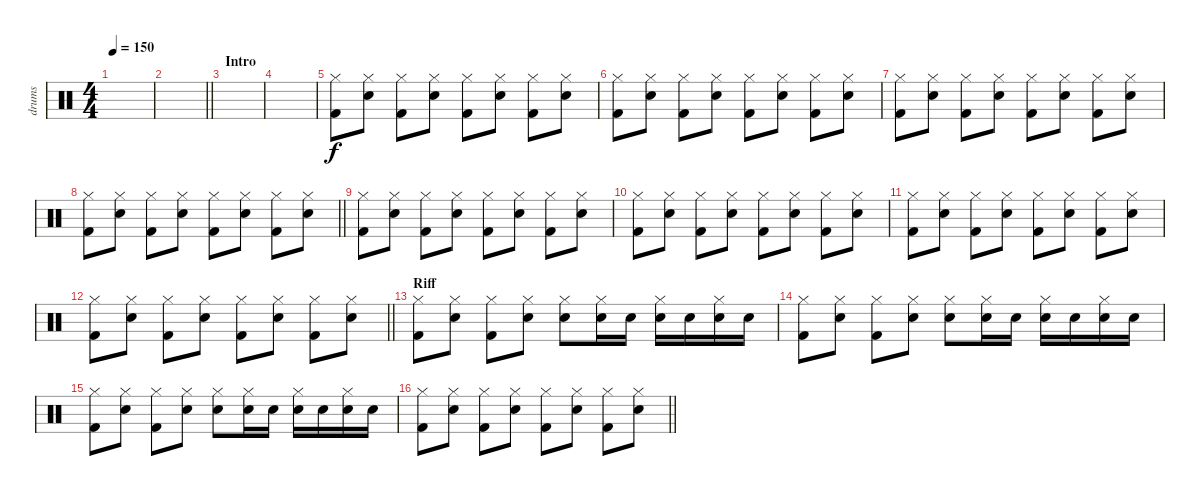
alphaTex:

\track ("drums" "drums") {instrument percussion}
\staff {score}
\articulation defaults
\ts (4 4)
\tempo 150
\clef neutral
\ks c
|
\barLineRight lightlight
|
\section ("" "Intro")
|
|
("Hi-Hat (closed)" "Kick (hit) 2").8 ("Hi-Hat (closed)" "Snare (hit) 2").8 ("Hi-Hat (closed)" "Kick (hit) 2").8 ("Hi-Hat (closed)" "Snare (hit) 2").8 ("Hi-Hat (closed)" "Kick (hit) 2").8 ("Hi-Hat (closed)" "Snare (hit) 2").8 ("Hi-Hat (closed)" "Kick (hit) 2").8 ("Hi-Hat (closed)" "Snare (hit) 2").8 |
("Hi-Hat (closed)" "Kick (hit) 2").8 ("Hi-Hat (closed)" "Snare (hit) 2").8 ("Hi-Hat (closed)" "Kick (hit) 2").8 ("Hi-Hat (closed)" "Snare (hit) 2").8 ("Hi-Hat (closed)" "Kick (hit) 2").8 ("Hi-Hat (closed)" "Snare (hit) 2").8 ("Hi-Hat (closed)" "Kick (hit) 2").8 ("Hi-Hat (closed)" "Snare (hit) 2").8 |
("Hi-Hat (closed)" "Kick (hit) 2").8 ("Hi-Hat (closed)" "Snare (hit) 2").8 ("Hi-Hat (closed)" "Kick (hit) 2").8 ("Hi-Hat (closed)" "Snare (hit) 2").8 ("Hi-Hat (closed)" "Kick (hit) 2").8 ("Hi-Hat (closed)" "Snare (hit) 2").8 ("Hi-Hat (closed)" "Kick (hit) 2").8 ("Hi-Hat (closed)" "Snare (hit) 2").8 |
\barLineRight lightlight
("Hi-Hat (closed)" "Kick (hit) 2").8 ("Hi-Hat (closed)" "Snare (hit) 2").8 ("Hi-Hat (closed)" "Kick (hit) 2").8 ("Hi-Hat (closed)" "Snare (hit) 2").8 ("Hi-Hat (closed)" "Kick (hit) 2").8 ("Hi-Hat (closed)" "Snare (hit) 2").8 ("Hi-Hat (closed)" "Kick (hit) 2").8 ("Hi-Hat (closed)" "Snare (hit) 2").8 |
\section ("" "")
("Hi-Hat (closed)" "Kick (hit) 2").8 ("Hi-Hat (closed)" "Snare (hit) 2").8 ("Hi-Hat (closed)" "Kick (hit) 2").8 ("Hi-Hat (closed)" "Snare (hit) 2").8 ("Hi-Hat (closed)" "Kick (hit) 2").8 ("Hi-Hat (closed)" "Snare (hit) 2").8 ("Hi-Hat (closed)" "Kick (hit) 2").8 ("Hi-Hat (closed)" "Snare (hit) 2").8 |
("Hi-Hat (closed)" "Kick (hit) 2").8 ("Hi-Hat (closed)" "Snare (hit) 2").8 ("Hi-Hat (closed)" "Kick (hit) 2").8 ("Hi-Hat (closed)" "Snare (hit) 2").8 ("Hi-Hat (closed)" "Kick (hit) 2").8 ("Hi-Hat (closed)" "Snare (hit) 2").8 ("Hi-Hat (closed)" "Kick (hit) 2").8 ("Hi-Hat (closed)" "Snare (hit) 2").8 |
("Hi-Hat (closed)" "Kick (hit) 2").8 ("Hi-Hat (closed)" "Snare (hit) 2").8 ("Hi-Hat (closed)" "Kick (hit) 2").8 ("Hi-Hat (closed)" "Snare (hit) 2").8 ("Hi-Hat (closed)" "Kick (hit) 2").8 ("Hi-Hat (closed)" "Snare (hit) 2").8 ("Hi-Hat (closed)" "Kick (hit) 2").8 ("Hi-Hat (closed)" "Snare (hit) 2").8 |
\barLineRight lightlight
("Hi-Hat (closed)" "Kick (hit) 2").8 ("Hi-Hat (closed)" "Snare (hit) 2").8 ("Hi-Hat (closed)" "Kick (hit) 2").8 ("Hi-Hat (closed)" "Snare (hit) 2").8 ("Hi-Hat (closed)" "Kick (hit) 2").8 ("Hi-Hat (closed)" "Snare (hit) 2").8 ("Hi-Hat (closed)" "Kick (hit) 2").8 ("Hi-Hat (closed)" "Snare (hit) 2").8 |
\section ("" "Riff")
("Hi-Hat (closed)" "Kick (hit) 2").8 ("Hi-Hat (closed)" "Snare (hit) 2").8 ("Hi-Hat (closed)" "Kick (hit) 2").8 ("Hi-Hat (closed)" "Snare (hit) 2").8 ("Hi-Hat (closed)" "Snare (hit) 2").8 ("Hi-Hat (closed)" "Snare (hit) 2").16 "Snare (hit) 2".16 ("Hi-Hat (closed)" "Snare (hit) 2").16 "Snare (hit) 2".16 ("Hi-Hat (closed)" "Snare (hit) 2").16 "Snare (hit) 2".16 |
("Hi-Hat (closed)" "Kick (hit) 2").8 ("Hi-Hat (closed)" "Snare (hit) 2").8 ("Hi-Hat (closed)" "Kick (hit) 2").8 ("Hi-Hat (closed)" "Snare (hit) 2").8 ("Hi-Hat (closed)" "Snare (hit) 2").8 ("Hi-Hat (closed)" "Snare (hit) 2").16 "Snare (hit) 2".16 ("Hi-Hat (closed)" "Snare (hit) 2").16 "Snare (hit) 2".16 ("Hi-Hat (closed)" "Snare (hit) 2").16 "Snare (hit) 2".16 |
("Hi-Hat (closed)" "Kick (hit) 2").8 ("Hi-Hat (closed)" "Snare (hit) 2").8 ("Hi-Hat (closed)" "Kick (hit) 2").8 ("Hi-Hat (closed)" "Snare (hit) 2").8 ("Hi-Hat (closed)" "Snare (hit) 2").8 ("Hi-Hat (closed)" "Snare (hit) 2").16 "Snare (hit) 2".16 ("Hi-Hat (closed)" "Snare (hit) 2").16 "Snare (hit) 2".16 ("Hi-Hat (closed)" "Snare (hit) 2").16 "Snare (hit) 2".16 |
\barLineRight lightlight
("Hi-Hat (closed)" "Kick (hit) 2").8 ("Hi-Hat (closed)" "Snare (hit) 2").8 ("Hi-Hat (closed)" "Kick (hit) 2").8 ("Hi-Hat (closed)" "Snare (hit) 2").8 ("Hi-Hat (closed)" "Kick (hit) 2").8 ("Hi-Hat (closed)" "Snare (hit) 2").8 ("Hi-Hat (closed)" "Kick (hit) 2").8 ("Hi-Hat (closed)" "Snare (hit) 2").8
